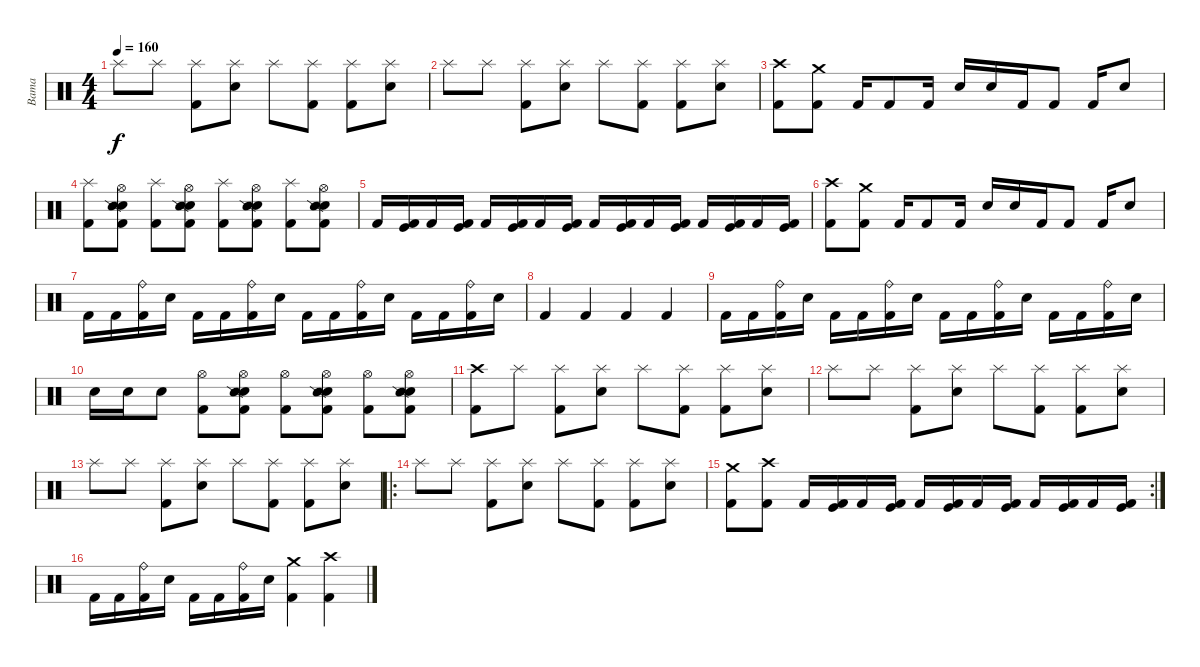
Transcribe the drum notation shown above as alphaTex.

\track ("Bama" "Bama") {instrument percussion}
\staff {score}
\articulation defaults
\ts (4 4)
\tempo 160
\clef neutral
\ks c "Splash (hit)".8{dy f} "Splash (hit)".8
("Splash (hit)" "Kick (hit) 2").8 ("Splash (hit)" "Electric Snare (hit)").8 "Splash (hit)".8 ("Splash (hit)" "Kick (hit) 2").8 ("Splash (hit)" "Kick (hit) 2").8 ("Splash (hit)" "Electric Snare (hit)").8 |
"Splash (hit)".8 "Splash (hit)".8 ("Splash (hit)" "Kick (hit) 2").8 ("Splash (hit)" "Electric Snare (hit)").8 "Splash (hit)".8 ("Splash (hit)" "Kick (hit) 2").8 ("Splash (hit)" "Kick (hit) 2").8 ("Splash (hit)" "Electric Snare (hit)").8 |
("Crash high (hit)" "Kick (hit) 2").8 ("Crash medium (hit)" "Kick (hit) 2").8 "Kick (hit) 2".16 "Kick (hit) 2".8 "Kick (hit) 2".16 "Electric Snare (hit)".16 "Electric Snare (hit)".16 "Kick (hit) 2".16 "Kick (hit) 2".8 "Kick (hit) 2".16 "Electric Snare (hit)".8 |
("Splash (hit)" "Kick (hit) 2").8 ("Hi-Hat (open)" "Electric Snare (hit)" "Snare (side stick) 2" "Kick (hit) 2").8 ("Splash (hit)" "Kick (hit) 2").8 ("Hi-Hat (open)" "Electric Snare (hit)" "Snare (side stick) 2" "Kick (hit) 2").8 ("Splash (hit)" "Kick (hit) 2").8 ("Hi-Hat (open)" "Electric Snare (hit)" "Snare (side stick) 2" "Kick (hit) 2").8 ("Splash (hit)" "Kick (hit) 2").8 ("Hi-Hat (open)" "Electric Snare (hit)" "Snare (side stick) 2" "Kick (hit) 2").8 |
"Kick (hit) 2".16 ("Kick (hit)" "Kick (hit) 2").16 "Kick (hit) 2".16 ("Kick (hit)" "Kick (hit) 2").16 "Kick (hit) 2".16 ("Kick (hit)" "Kick (hit) 2").16 "Kick (hit) 2".16 ("Kick (hit)" "Kick (hit) 2").16 "Kick (hit) 2".16 ("Kick (hit)" "Kick (hit) 2").16 "Kick (hit) 2".16 ("Kick (hit)" "Kick (hit) 2").16 "Kick (hit) 2".16 ("Kick (hit)" "Kick (hit) 2").16 "Kick (hit) 2".16 ("Kick (hit)" "Kick (hit) 2").16 |
("Crash high (hit)" "Kick (hit) 2").8 ("Crash medium (hit)" "Kick (hit) 2").8 "Kick (hit) 2".16 "Kick (hit) 2".8 "Kick (hit) 2".16 "Electric Snare (hit)".16 "Electric Snare (hit)".16 "Kick (hit) 2".16 "Kick (hit) 2".8 "Kick (hit) 2".16 "Electric Snare (hit)".8 |
"Kick (hit) 2".16 "Kick (hit) 2".16 ("Ride (bell)" "Kick (hit) 2").16 "Electric Snare (hit)".16 "Kick (hit) 2".16 "Kick (hit) 2".16 ("Ride (bell)" "Kick (hit) 2").16 "Electric Snare (hit)".16 "Kick (hit) 2".16 "Kick (hit) 2".16 ("Ride (bell)" "Kick (hit) 2").16 "Electric Snare (hit)".16 "Kick (hit) 2".16 "Kick (hit) 2".16 ("Ride (bell)" "Kick (hit) 2").16 "Electric Snare (hit)".16 |
"Kick (hit) 2".4 "Kick (hit) 2".4 "Kick (hit) 2".4 "Kick (hit) 2".4 |
"Kick (hit) 2".16 "Kick (hit) 2".16 ("Ride (bell)" "Kick (hit) 2").16 "Electric Snare (hit)".16 "Kick (hit) 2".16 "Kick (hit) 2".16 ("Ride (bell)" "Kick (hit) 2").16 "Electric Snare (hit)".16 "Kick (hit) 2".16 "Kick (hit) 2".16 ("Ride (bell)" "Kick (hit) 2").16 "Electric Snare (hit)".16 "Kick (hit) 2".16 "Kick (hit) 2".16 ("Ride (bell)" "Kick (hit) 2").16 "Electric Snare (hit)".16 |
"Electric Snare (hit)".16 "Electric Snare (hit)".16 "Electric Snare (hit)".8 ("Hi-Hat (open)" "Kick (hit) 2").8 ("Hi-Hat (open)" "Electric Snare (hit)" "Snare (side stick) 2" "Kick (hit) 2").8 ("Hi-Hat (open)" "Kick (hit) 2").8 ("Hi-Hat (open)" "Electric Snare (hit)" "Snare (side stick) 2" "Kick (hit) 2").8 ("Hi-Hat (open)" "Kick (hit) 2").8 ("Hi-Hat (open)" "Electric Snare (hit)" "Snare (side stick) 2" "Kick (hit) 2").8 |
("Crash high (hit)" "Kick (hit) 2").8 "Splash (hit)".8 ("Splash (hit)" "Kick (hit) 2").8 ("Splash (hit)" "Electric Snare (hit)").8 "Splash (hit)".8 ("Splash (hit)" "Kick (hit) 2").8 ("Splash (hit)" "Kick (hit) 2").8 ("Splash (hit)" "Electric Snare (hit)").8 |
"Splash (hit)".8 "Splash (hit)".8 ("Splash (hit)" "Kick (hit) 2").8 ("Splash (hit)" "Electric Snare (hit)").8 "Splash (hit)".8 ("Splash (hit)" "Kick (hit) 2").8 ("Splash (hit)" "Kick (hit) 2").8 ("Splash (hit)" "Electric Snare (hit)").8 |
"Splash (hit)".8 "Splash (hit)".8 ("Splash (hit)" "Kick (hit) 2").8 ("Splash (hit)" "Electric Snare (hit)").8 "Splash (hit)".8 ("Splash (hit)" "Kick (hit) 2").8 ("Splash (hit)" "Kick (hit) 2").8 ("Splash (hit)" "Electric Snare (hit)").8 |
\ro "Splash (hit)".8 "Splash (hit)".8
("Splash (hit)" "Kick (hit) 2").8 ("Splash (hit)" "Electric Snare (hit)").8 "Splash (hit)".8 ("Splash (hit)" "Kick (hit) 2").8 ("Splash (hit)" "Kick (hit) 2").8 ("Splash (hit)" "Electric Snare (hit)").8 |
\rc 2
("Crash medium (hit)" "Kick (hit) 2").8 ("Crash high (hit)" "Kick (hit) 2").8 "Kick (hit) 2".16 ("Kick (hit)" "Kick (hit) 2").16 "Kick (hit) 2".16 ("Kick (hit)" "Kick (hit) 2").16 "Kick (hit) 2".16 ("Kick (hit)" "Kick (hit) 2").16 "Kick (hit) 2".16 ("Kick (hit)" "Kick (hit) 2").16 "Kick (hit) 2".16 ("Kick (hit)" "Kick (hit) 2").16 "Kick (hit) 2".16 ("Kick (hit)" "Kick (hit) 2").16 |
"Kick (hit) 2".16 "Kick (hit) 2".16 ("Ride (bell)" "Kick (hit) 2").16 "Electric Snare (hit)".16 "Kick (hit) 2".16 "Kick (hit) 2".16 ("Ride (bell)" "Kick (hit) 2").16 "Electric Snare (hit)".16 ("Crash medium (hit)" "Kick (hit) 2").4 ("Crash high (hit)" "Kick (hit) 2").4
